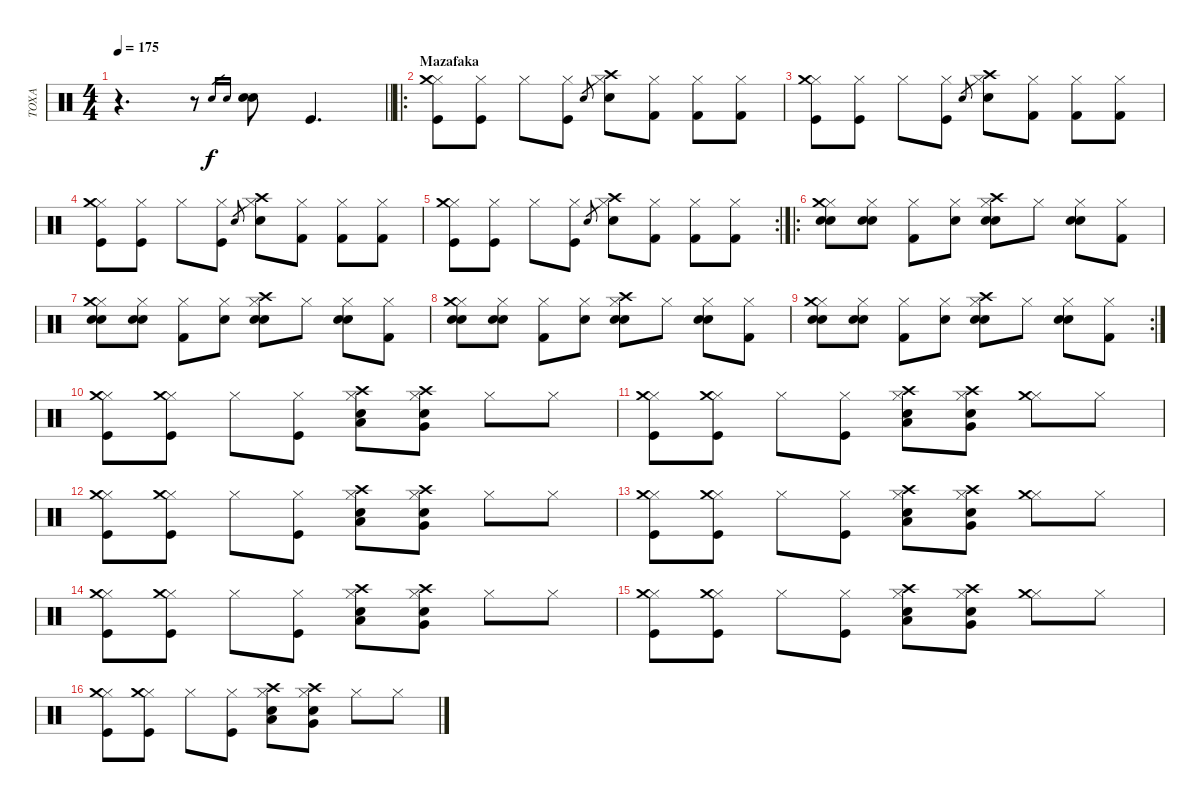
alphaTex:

\track ("TOXA" "TOXA") {instrument percussion}
\staff {score}
\articulation defaults
\ts (4 4)
\tempo 175
\clef neutral
\barLineRight lightlight
\ks c
r.4{d dy f} r.8 "Electric Snare (hit)".16{gr} "Electric Snare (hit)".16{gr} ("Electric Snare (hit)" "Electric Snare (hit)").8 "Kick (hit)".4{d} |
\ro
\section ("" "Mazafaka")
("Hi-Hat (closed)" "Crash medium (hit)" "Kick (hit)").8 ("Hi-Hat (closed)" "Kick (hit)").8 "Hi-Hat (closed)".8 ("Hi-Hat (closed)" "Kick (hit)").8 "Electric Snare (hit)".8{gr} ("Hi-Hat (closed)" "Crash high (hit)" "Snare (hit) 2").8 ("Hi-Hat (closed)" "Kick (hit) 2").8 ("Hi-Hat (closed)" "Kick (hit) 2").8 ("Hi-Hat (closed)" "Kick (hit) 2").8 |
("Hi-Hat (closed)" "Crash medium (hit)" "Kick (hit)").8 ("Hi-Hat (closed)" "Kick (hit)").8 "Hi-Hat (closed)".8 ("Hi-Hat (closed)" "Kick (hit)").8 "Electric Snare (hit)".8{gr} ("Hi-Hat (closed)" "Crash high (hit)" "Snare (hit) 2").8 ("Hi-Hat (closed)" "Kick (hit) 2").8 ("Hi-Hat (closed)" "Kick (hit) 2").8 ("Hi-Hat (closed)" "Kick (hit) 2").8 |
("Hi-Hat (closed)" "Crash medium (hit)" "Kick (hit)").8 ("Hi-Hat (closed)" "Kick (hit)").8 "Hi-Hat (closed)".8 ("Hi-Hat (closed)" "Kick (hit)").8 "Electric Snare (hit)".8{gr} ("Hi-Hat (closed)" "Crash high (hit)" "Snare (hit) 2").8 ("Hi-Hat (closed)" "Kick (hit) 2").8 ("Hi-Hat (closed)" "Kick (hit) 2").8 ("Hi-Hat (closed)" "Kick (hit) 2").8 |
\rc 2
("Hi-Hat (closed)" "Crash medium (hit)" "Kick (hit)").8 ("Hi-Hat (closed)" "Kick (hit)").8 "Hi-Hat (closed)".8 ("Hi-Hat (closed)" "Kick (hit)").8 "Electric Snare (hit)".8{gr} ("Hi-Hat (closed)" "Crash high (hit)" "Snare (hit) 2").8 ("Hi-Hat (closed)" "Kick (hit) 2").8 ("Hi-Hat (closed)" "Kick (hit) 2").8 ("Hi-Hat (closed)" "Kick (hit) 2").8 |
\ro
("Hi-Hat (closed)" "Crash medium (hit)" "Snare (hit) 2" "Electric Snare (hit)").8 ("Hi-Hat (closed)" "Snare (hit) 2" "Electric Snare (hit)").8 ("Hi-Hat (closed)" "Kick (hit) 2").8 ("Hi-Hat (closed)" "Snare (hit) 2").8 ("Hi-Hat (closed)" "Crash high (hit)" "Snare (hit) 2" "Electric Snare (hit)").8 "Hi-Hat (closed)".8 ("Hi-Hat (closed)" "Snare (hit) 2" "Electric Snare (hit)").8 ("Hi-Hat (closed)" "Kick (hit) 2").8 |
("Hi-Hat (closed)" "Crash medium (hit)" "Snare (hit) 2" "Electric Snare (hit)").8 ("Hi-Hat (closed)" "Snare (hit) 2" "Electric Snare (hit)").8 ("Hi-Hat (closed)" "Kick (hit) 2").8 ("Hi-Hat (closed)" "Snare (hit) 2").8 ("Hi-Hat (closed)" "Crash high (hit)" "Snare (hit) 2" "Electric Snare (hit)").8 "Hi-Hat (closed)".8 ("Hi-Hat (closed)" "Snare (hit) 2" "Electric Snare (hit)").8 ("Hi-Hat (closed)" "Kick (hit) 2").8 |
("Hi-Hat (closed)" "Crash medium (hit)" "Snare (hit) 2" "Electric Snare (hit)").8 ("Hi-Hat (closed)" "Snare (hit) 2" "Electric Snare (hit)").8 ("Hi-Hat (closed)" "Kick (hit) 2").8 ("Hi-Hat (closed)" "Snare (hit) 2").8 ("Hi-Hat (closed)" "Crash high (hit)" "Snare (hit) 2" "Electric Snare (hit)").8 "Hi-Hat (closed)".8 ("Hi-Hat (closed)" "Snare (hit) 2" "Electric Snare (hit)").8 ("Hi-Hat (closed)" "Kick (hit) 2").8 |
\rc 2
("Hi-Hat (closed)" "Crash medium (hit)" "Snare (hit) 2" "Electric Snare (hit)").8 ("Hi-Hat (closed)" "Snare (hit) 2" "Electric Snare (hit)").8 ("Hi-Hat (closed)" "Kick (hit) 2").8 ("Hi-Hat (closed)" "Snare (hit) 2").8 ("Hi-Hat (closed)" "Crash high (hit)" "Snare (hit) 2" "Electric Snare (hit)").8 "Hi-Hat (closed)".8 ("Hi-Hat (closed)" "Snare (hit) 2" "Electric Snare (hit)").8 ("Hi-Hat (closed)" "Kick (hit) 2").8 |
("Hi-Hat (closed)" "Crash medium (hit)" "Kick (hit)").8 ("Hi-Hat (closed)" "Crash medium (hit)" "Kick (hit)").8 "Hi-Hat (closed)".8 ("Hi-Hat (closed)" "Kick (hit)").8 ("Hi-Hat (closed)" "Crash high (hit)" "Snare (hit) 2" "Low Floor Tom (hit)").8 ("Hi-Hat (closed)" "Crash high (hit)" "Electric Snare (hit)" "Very Low Tom (hit)").8 "Hi-Hat (closed)".8 "Hi-Hat (closed)".8 |
("Hi-Hat (closed)" "Crash medium (hit)" "Kick (hit)").8 ("Hi-Hat (closed)" "Crash medium (hit)" "Kick (hit)").8 "Hi-Hat (closed)".8 ("Hi-Hat (closed)" "Kick (hit)").8 ("Hi-Hat (closed)" "Crash high (hit)" "Snare (hit) 2" "Low Floor Tom (hit)").8 ("Hi-Hat (closed)" "Crash high (hit)" "Electric Snare (hit)" "Very Low Tom (hit)").8 ("Hi-Hat (closed)" "Crash medium (hit)").8 "Hi-Hat (closed)".8 |
("Hi-Hat (closed)" "Crash medium (hit)" "Kick (hit)").8 ("Hi-Hat (closed)" "Crash medium (hit)" "Kick (hit)").8 "Hi-Hat (closed)".8 ("Hi-Hat (closed)" "Kick (hit)").8 ("Hi-Hat (closed)" "Crash high (hit)" "Snare (hit) 2" "Low Floor Tom (hit)").8 ("Hi-Hat (closed)" "Crash high (hit)" "Electric Snare (hit)" "Very Low Tom (hit)").8 "Hi-Hat (closed)".8 "Hi-Hat (closed)".8 |
("Hi-Hat (closed)" "Crash medium (hit)" "Kick (hit)").8 ("Hi-Hat (closed)" "Crash medium (hit)" "Kick (hit)").8 "Hi-Hat (closed)".8 ("Hi-Hat (closed)" "Kick (hit)").8 ("Hi-Hat (closed)" "Crash high (hit)" "Snare (hit) 2" "Low Floor Tom (hit)").8 ("Hi-Hat (closed)" "Crash high (hit)" "Electric Snare (hit)" "Very Low Tom (hit)").8 ("Hi-Hat (closed)" "Crash medium (hit)").8 "Hi-Hat (closed)".8 |
("Hi-Hat (closed)" "Crash medium (hit)" "Kick (hit)").8 ("Hi-Hat (closed)" "Crash medium (hit)" "Kick (hit)").8 "Hi-Hat (closed)".8 ("Hi-Hat (closed)" "Kick (hit)").8 ("Hi-Hat (closed)" "Crash high (hit)" "Snare (hit) 2" "Low Floor Tom (hit)").8 ("Hi-Hat (closed)" "Crash high (hit)" "Electric Snare (hit)" "Very Low Tom (hit)").8 "Hi-Hat (closed)".8 "Hi-Hat (closed)".8 |
("Hi-Hat (closed)" "Crash medium (hit)" "Kick (hit)").8 ("Hi-Hat (closed)" "Crash medium (hit)" "Kick (hit)").8 "Hi-Hat (closed)".8 ("Hi-Hat (closed)" "Kick (hit)").8 ("Hi-Hat (closed)" "Crash high (hit)" "Snare (hit) 2" "Low Floor Tom (hit)").8 ("Hi-Hat (closed)" "Crash high (hit)" "Electric Snare (hit)" "Very Low Tom (hit)").8 ("Hi-Hat (closed)" "Crash medium (hit)").8 "Hi-Hat (closed)".8 |
("Hi-Hat (closed)" "Crash medium (hit)" "Kick (hit)").8 ("Hi-Hat (closed)" "Crash medium (hit)" "Kick (hit)").8 "Hi-Hat (closed)".8 ("Hi-Hat (closed)" "Kick (hit)").8 ("Hi-Hat (closed)" "Crash high (hit)" "Snare (hit) 2" "Low Floor Tom (hit)").8 ("Hi-Hat (closed)" "Crash high (hit)" "Electric Snare (hit)" "Very Low Tom (hit)").8 "Hi-Hat (closed)".8 "Hi-Hat (closed)".8
